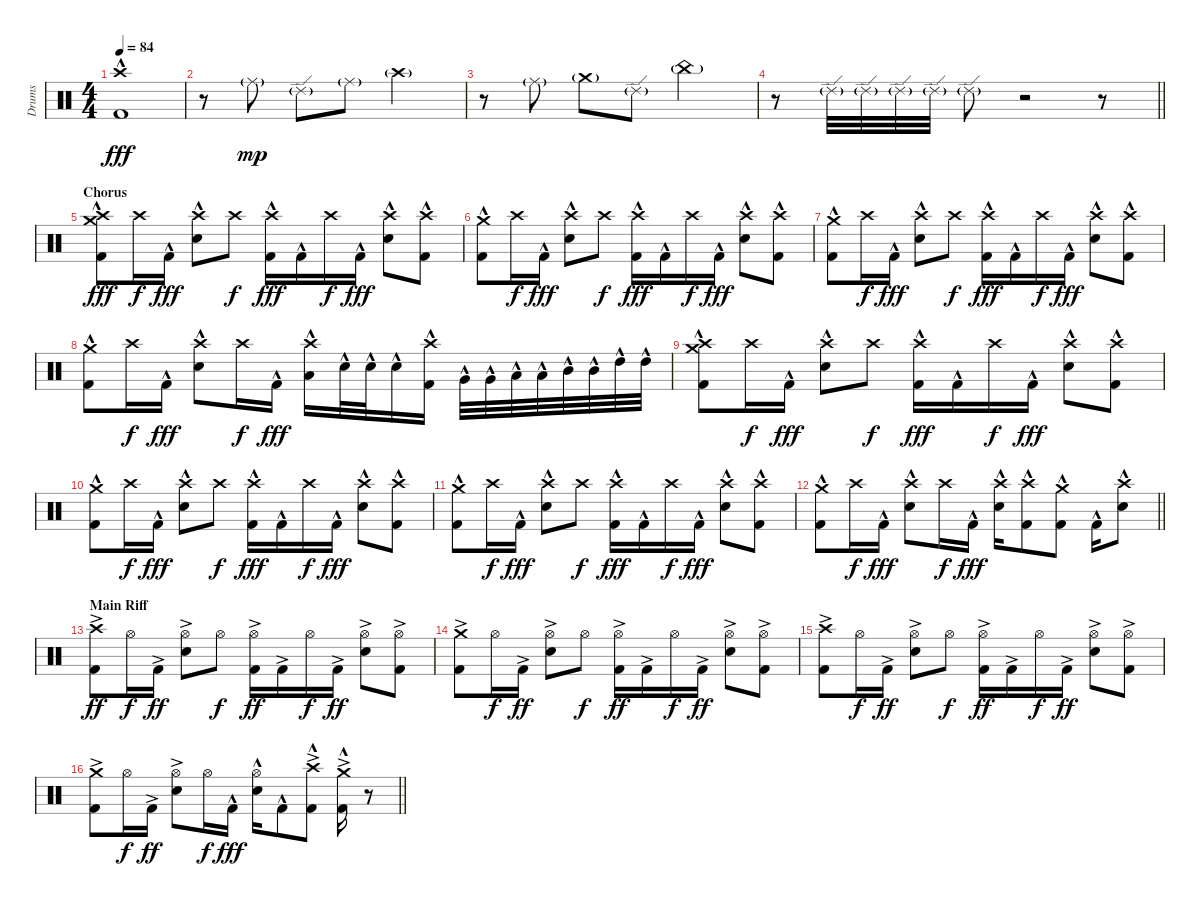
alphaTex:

\track ("Drums" "Drums") {instrument percussion}
\staff {score}
\articulation defaults
\ts (4 4)
\tempo 84
\clef neutral
\ks c
("Crash high (hit)" "Kick (hit) 2"{hac}).1{dy fff} |
r.8 "Ride (middle)"{g}.8{dy mp} "Ride (edge) 2"{g}.8 "Ride (middle)"{g}.8 "Crash high (hit)"{g}.2 |
r.8 "Ride (middle)"{g}.8 "Crash medium (hit)"{g}.8 "Ride (edge) 2"{g}.8 "China (hit)"{g}.2 |
\barLineRight lightlight
r.8 "Ride (edge) 2"{g}.32 "Ride (edge) 2"{g}.32 "Ride (edge) 2"{g}.32 "Ride (edge) 2"{g}.32 "Ride (edge) 2"{g}.8 r.2 r.8 |
\section ("" "Chorus")
("Crash high (hit)" "Crash medium (hit)" "Kick (hit) 2"{hac}).8{dy fff} "Crash high (hit)".16{dy f} "Kick (hit) 2"{hac}.16{dy fff} ("Crash high (hit)" "Electric Snare (hit)"{hac}).8 "Crash high (hit)".8{dy f} ("Crash high (hit)" "Kick (hit) 2"{hac}).16{dy fff} "Kick (hit) 2"{hac}.16 "Crash high (hit)".16{dy f} "Kick (hit) 2"{hac}.16{dy fff} ("Crash high (hit)" "Electric Snare (hit)"{hac}).8 ("Crash high (hit)" "Kick (hit) 2"{hac}).8 |
("Crash medium (hit)" "Kick (hit) 2"{hac}).8 "Crash high (hit)".16{dy f} "Kick (hit) 2"{hac}.16{dy fff} ("Crash high (hit)" "Electric Snare (hit)"{hac}).8 "Crash high (hit)".8{dy f} ("Crash high (hit)" "Kick (hit) 2"{hac}).16{dy fff} "Kick (hit) 2"{hac}.16 "Crash high (hit)".16{dy f} "Kick (hit) 2"{hac}.16{dy fff} ("Crash high (hit)" "Electric Snare (hit)"{hac}).8 ("Crash high (hit)" "Kick (hit) 2"{hac}).8 |
("Crash medium (hit)" "Kick (hit) 2"{hac}).8 "Crash high (hit)".16{dy f} "Kick (hit) 2"{hac}.16{dy fff} ("Crash high (hit)" "Electric Snare (hit)"{hac}).8 "Crash high (hit)".8{dy f} ("Crash high (hit)" "Kick (hit) 2"{hac}).16{dy fff} "Kick (hit) 2"{hac}.16 "Crash high (hit)".16{dy f} "Kick (hit) 2"{hac}.16{dy fff} ("Crash high (hit)" "Electric Snare (hit)"{hac}).8 ("Crash high (hit)" "Kick (hit) 2"{hac}).8 |
("Crash medium (hit)" "Kick (hit) 2"{hac}).8 "Crash high (hit)".16{dy f} "Kick (hit) 2"{hac}.16{dy fff} ("Crash high (hit)" "Electric Snare (hit)"{hac}).8 "Crash high (hit)".16{dy f} "Kick (hit) 2"{hac}.16{dy fff} ("Crash high (hit)" "Low Floor Tom (hit)"{hac}).16 "Electric Snare (hit)"{hac}.32 "Electric Snare (hit)"{hac}.32 "Electric Snare (hit)"{hac}.16 ("Crash high (hit)" "Kick (hit) 2"{hac}).16 "Very Low Tom (hit)"{hac}.32 "Very Low Tom (hit)"{hac}.32 "Low Tom (hit)"{hac}.32 "Low Tom (hit)"{hac}.32 "Mid Tom (hit)"{hac}.32 "Mid Tom (hit)"{hac}.32 "High Tom (hit)"{hac}.32 "High Tom (hit)"{hac}.32 |
("Crash high (hit)" "Crash medium (hit)" "Kick (hit) 2"{hac}).8 "Crash high (hit)".16{dy f} "Kick (hit) 2"{hac}.16{dy fff} ("Crash high (hit)" "Electric Snare (hit)"{hac}).8 "Crash high (hit)".8{dy f} ("Crash high (hit)" "Kick (hit) 2"{hac}).16{dy fff} "Kick (hit) 2"{hac}.16 "Crash high (hit)".16{dy f} "Kick (hit) 2"{hac}.16{dy fff} ("Crash high (hit)" "Electric Snare (hit)"{hac}).8 ("Crash high (hit)" "Kick (hit) 2"{hac}).8 |
("Crash medium (hit)" "Kick (hit) 2"{hac}).8 "Crash high (hit)".16{dy f} "Kick (hit) 2"{hac}.16{dy fff} ("Crash high (hit)" "Electric Snare (hit)"{hac}).8 "Crash high (hit)".8{dy f} ("Crash high (hit)" "Kick (hit) 2"{hac}).16{dy fff} "Kick (hit) 2"{hac}.16 "Crash high (hit)".16{dy f} "Kick (hit) 2"{hac}.16{dy fff} ("Crash high (hit)" "Electric Snare (hit)"{hac}).8 ("Crash high (hit)" "Kick (hit) 2"{hac}).8 |
("Crash medium (hit)" "Kick (hit) 2"{hac}).8 "Crash high (hit)".16{dy f} "Kick (hit) 2"{hac}.16{dy fff} ("Crash high (hit)" "Electric Snare (hit)"{hac}).8 "Crash high (hit)".8{dy f} ("Crash high (hit)" "Kick (hit) 2"{hac}).16{dy fff} "Kick (hit) 2"{hac}.16 "Crash high (hit)".16{dy f} "Kick (hit) 2"{hac}.16{dy fff} ("Crash high (hit)" "Electric Snare (hit)"{hac}).8 ("Crash high (hit)" "Kick (hit) 2"{hac}).8 |
\barLineRight lightlight
("Crash medium (hit)" "Kick (hit) 2"{hac}).8 "Crash high (hit)".16{dy f} "Kick (hit) 2"{hac}.16{dy fff} ("Crash high (hit)" "Electric Snare (hit)"{hac}).8 "Crash high (hit)".16{dy f} "Kick (hit) 2"{hac}.16{dy fff} ("Crash high (hit)" "Electric Snare (hit)"{hac}).16 ("Crash high (hit)" "Kick (hit) 2"{hac}).8 ("Crash medium (hit)" "Kick (hit) 2"{hac}).8 "Kick (hit) 2"{hac}.16 ("Crash high (hit)" "Electric Snare (hit)"{hac}).8 |
\section ("" "Main Riff")
("Crash high (hit)" "Kick (hit) 2"{ac}).8{dy ff} "Hi-Hat (open)".16{dy f} "Kick (hit) 2"{ac}.16{dy ff} ("Hi-Hat (open)" "Electric Snare (hit)"{ac}).8 "Hi-Hat (open)".8{dy f} ("Hi-Hat (open)" "Kick (hit) 2"{ac}).16{dy ff} "Kick (hit) 2"{ac}.16 "Hi-Hat (open)".16{dy f} "Kick (hit) 2"{ac}.16{dy ff} ("Hi-Hat (open)" "Electric Snare (hit)"{ac}).8 ("Hi-Hat (open)" "Kick (hit) 2"{ac}).8 |
("Crash medium (hit)" "Kick (hit) 2"{ac}).8 "Hi-Hat (open)".16{dy f} "Kick (hit) 2"{ac}.16{dy ff} ("Hi-Hat (open)" "Electric Snare (hit)"{ac}).8 "Hi-Hat (open)".8{dy f} ("Hi-Hat (open)" "Kick (hit) 2"{ac}).16{dy ff} "Kick (hit) 2"{ac}.16 "Hi-Hat (open)".16{dy f} "Kick (hit) 2"{ac}.16{dy ff} ("Hi-Hat (open)" "Electric Snare (hit)"{ac}).8 ("Hi-Hat (open)" "Kick (hit) 2"{ac}).8 |
("Crash high (hit)" "Kick (hit) 2"{ac}).8 "Hi-Hat (open)".16{dy f} "Kick (hit) 2"{ac}.16{dy ff} ("Hi-Hat (open)" "Electric Snare (hit)"{ac}).8 "Hi-Hat (open)".8{dy f} ("Hi-Hat (open)" "Kick (hit) 2"{ac}).16{dy ff} "Kick (hit) 2"{ac}.16 "Hi-Hat (open)".16{dy f} "Kick (hit) 2"{ac}.16{dy ff} ("Hi-Hat (open)" "Electric Snare (hit)"{ac}).8 ("Hi-Hat (open)" "Kick (hit) 2"{ac}).8 |
\barLineRight lightlight
("Crash medium (hit)" "Kick (hit) 2"{ac}).8 "Hi-Hat (open)".16{dy f} "Kick (hit) 2"{ac}.16{dy ff} ("Hi-Hat (open)" "Electric Snare (hit)"{ac}).8 "Hi-Hat (open)".16{dy f} "Kick (hit) 2"{hac}.16{dy fff} ("Hi-Hat (open)" "Electric Snare (hit)"{hac}).16 "Kick (hit) 2"{hac}.8 ("Crash high (hit)"{ac} "Kick (hit) 2"{hac}).8 ("Crash medium (hit)"{ac} "Kick (hit) 2"{hac}).16 r.8
